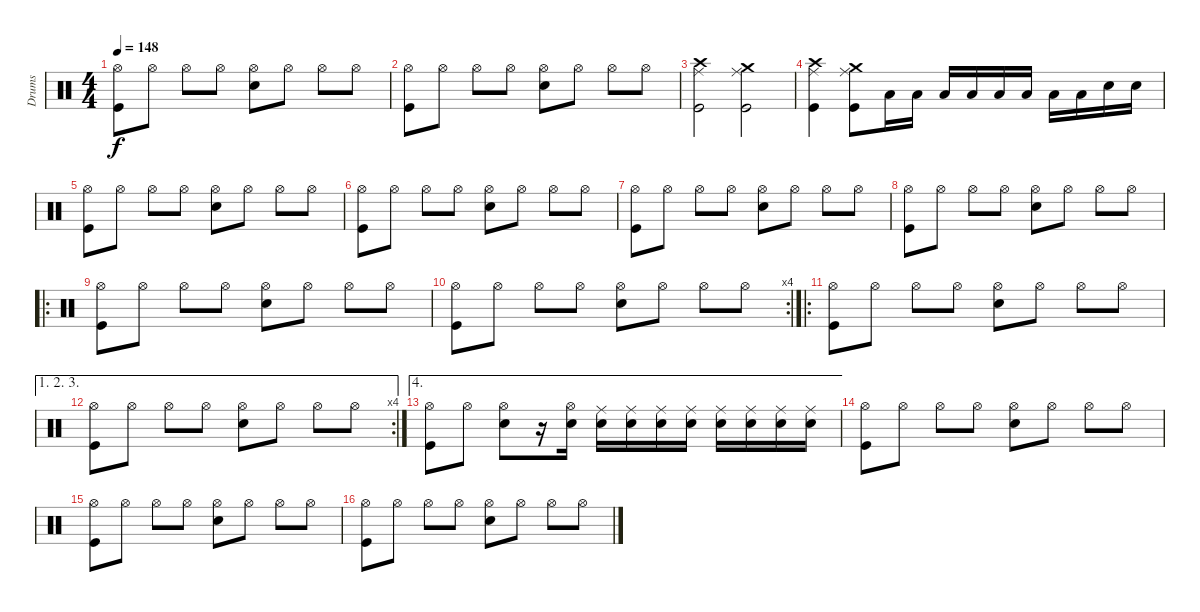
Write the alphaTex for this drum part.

\track ("Drums" "Drums") {instrument percussion}
\staff {score}
\articulation defaults
\ts (4 4)
\tempo 148
\clef neutral
\ks c
("Hi-Hat (open)" "Kick (hit)").8{dy f} "Hi-Hat (open)".8 "Hi-Hat (open)".8 "Hi-Hat (open)".8 ("Snare (hit) 2" "Hi-Hat (open)").8 "Hi-Hat (open)".8 "Hi-Hat (open)".8 "Hi-Hat (open)".8 |
("Hi-Hat (open)" "Kick (hit)").8 "Hi-Hat (open)".8 "Hi-Hat (open)".8 "Hi-Hat (open)".8 ("Snare (hit) 2" "Hi-Hat (open)").8 "Hi-Hat (open)".8 "Hi-Hat (open)".8 "Hi-Hat (open)".8 |
("Ride (middle)" "Crash high (hit)" "Kick (hit)").2 ("Ride (middle)" "Crash medium (hit)" "Kick (hit)").2 |
("Ride (middle)" "Crash high (hit)" "Kick (hit)").4 ("Ride (middle)" "Crash medium (hit)" "Kick (hit)").8 "Low Tom (hit)".16 "Low Tom (hit)".16 "Low Tom (hit)".16 "Low Tom (hit)".16 "Low Tom (hit)".16 "Low Tom (hit)".16 "Low Tom (hit)".16 "Low Tom (hit)".16 "Snare (hit) 2".16 "Snare (hit) 2".16 |
("Hi-Hat (open)" "Kick (hit)").8 "Hi-Hat (open)".8 "Hi-Hat (open)".8 "Hi-Hat (open)".8 ("Snare (hit) 2" "Hi-Hat (open)").8 "Hi-Hat (open)".8 "Hi-Hat (open)".8 "Hi-Hat (open)".8 |
("Kick (hit)" "Hi-Hat (open)").8 "Hi-Hat (open)".8 "Hi-Hat (open)".8 "Hi-Hat (open)".8 ("Snare (hit) 2" "Hi-Hat (open)").8 "Hi-Hat (open)".8 "Hi-Hat (open)".8 "Hi-Hat (open)".8 |
("Kick (hit)" "Hi-Hat (open)").8 "Hi-Hat (open)".8 "Hi-Hat (open)".8 "Hi-Hat (open)".8 ("Snare (hit) 2" "Hi-Hat (open)").8 "Hi-Hat (open)".8 "Hi-Hat (open)".8 "Hi-Hat (open)".8 |
("Kick (hit)" "Hi-Hat (open)").8 "Hi-Hat (open)".8 "Hi-Hat (open)".8 "Hi-Hat (open)".8 ("Snare (hit) 2" "Hi-Hat (open)").8 "Hi-Hat (open)".8 "Hi-Hat (open)".8 "Hi-Hat (open)".8 |
\ro
("Hi-Hat (open)" "Kick (hit)").8 "Hi-Hat (open)".8 "Hi-Hat (open)".8 "Hi-Hat (open)".8 ("Hi-Hat (open)" "Snare (hit) 2").8 "Hi-Hat (open)".8 "Hi-Hat (open)".8 "Hi-Hat (open)".8 |
\rc 4
("Hi-Hat (open)" "Kick (hit)").8 "Hi-Hat (open)".8 "Hi-Hat (open)".8 "Hi-Hat (open)".8 ("Hi-Hat (open)" "Snare (hit) 2").8 "Hi-Hat (open)".8 "Hi-Hat (open)".8 "Hi-Hat (open)".8 |
\ro
("Hi-Hat (open)" "Kick (hit)").8 "Hi-Hat (open)".8 "Hi-Hat (open)".8 "Hi-Hat (open)".8 ("Hi-Hat (open)" "Snare (hit) 2").8 "Hi-Hat (open)".8 "Hi-Hat (open)".8 "Hi-Hat (open)".8 |
\ae (1 2 3)
\rc 4
("Hi-Hat (open)" "Kick (hit)").8 "Hi-Hat (open)".8 "Hi-Hat (open)".8 "Hi-Hat (open)".8 ("Hi-Hat (open)" "Snare (hit) 2").8 "Hi-Hat (open)".8 "Hi-Hat (open)".8 "Hi-Hat (open)".8 |
\ae 4
("Kick (hit)" "Hi-Hat (open)").8 "Hi-Hat (open)".8 ("Snare (hit) 2" "Hi-Hat (open)").8 r.16 ("Snare (hit) 2" "Hi-Hat (open)").16 ("Snare (hit) 2" "Ride (middle)").16 ("Snare (hit) 2" "Ride (middle)").16 ("Snare (hit) 2" "Ride (middle)").16 ("Snare (hit) 2" "Ride (middle)").16 ("Snare (hit) 2" "Ride (middle)").16 ("Snare (hit) 2" "Ride (middle)").16 ("Snare (hit) 2" "Ride (middle)").16 ("Snare (hit) 2" "Ride (middle)").16 |
("Hi-Hat (open)" "Kick (hit)").8 "Hi-Hat (open)".8 "Hi-Hat (open)".8 "Hi-Hat (open)".8 ("Snare (hit) 2" "Hi-Hat (open)").8 "Hi-Hat (open)".8 "Hi-Hat (open)".8 "Hi-Hat (open)".8 |
("Kick (hit)" "Hi-Hat (open)").8 "Hi-Hat (open)".8 "Hi-Hat (open)".8 "Hi-Hat (open)".8 ("Snare (hit) 2" "Hi-Hat (open)").8 "Hi-Hat (open)".8 "Hi-Hat (open)".8 "Hi-Hat (open)".8 |
("Kick (hit)" "Hi-Hat (open)").8 "Hi-Hat (open)".8 "Hi-Hat (open)".8 "Hi-Hat (open)".8 ("Snare (hit) 2" "Hi-Hat (open)").8 "Hi-Hat (open)".8 "Hi-Hat (open)".8 "Hi-Hat (open)".8
